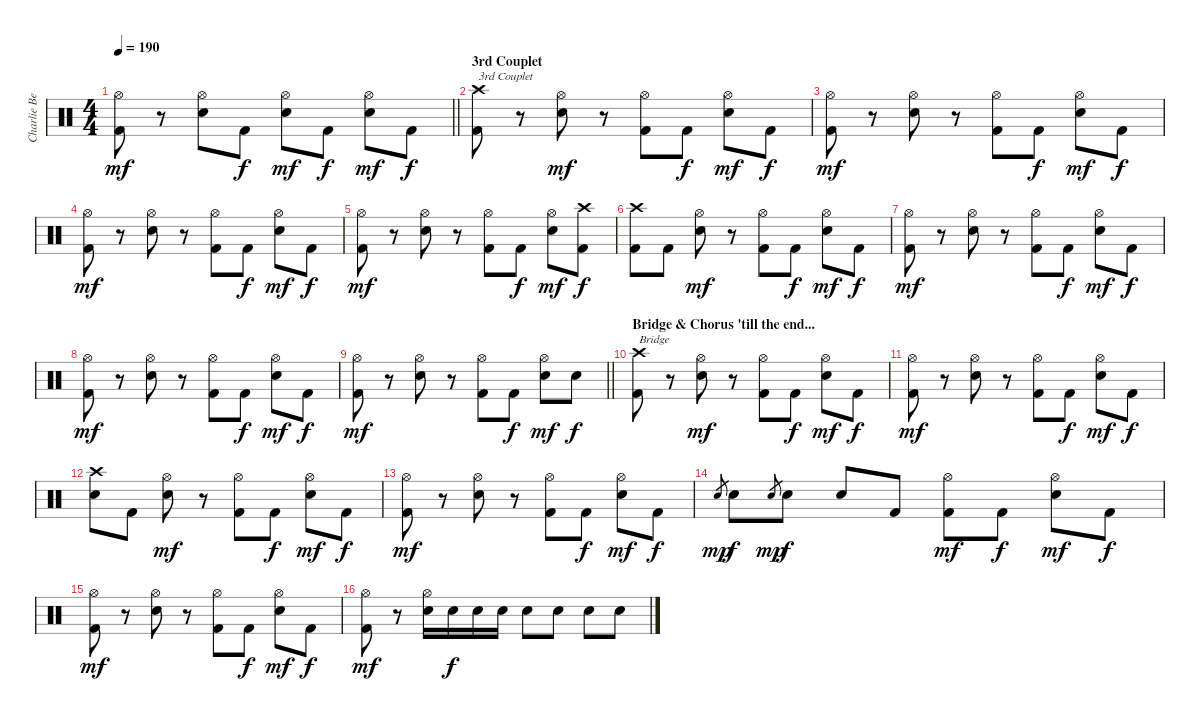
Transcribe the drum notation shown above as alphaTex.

\track ("Charlie Benante" "Charlie Be") {instrument percussion}
\staff {score}
\articulation defaults
\ts (4 4)
\tempo 190
\clef neutral
\barLineRight lightlight
\ks c
("Hi-Hat (open)" "Kick (hit) 2").8{dy mf} r.8 ("Hi-Hat (open)" "Electric Snare (hit)").8 "Kick (hit) 2".8{dy f} ("Hi-Hat (open)" "Electric Snare (hit)").8{dy mf} "Kick (hit) 2".8{dy f} ("Hi-Hat (open)" "Electric Snare (hit)").8{dy mf} "Kick (hit) 2".8{dy f} |
\section ("" "3rd Couplet")
("Crash high (hit)" "Kick (hit) 2").8{txt "3rd Couplet"} r.8 ("Hi-Hat (open)" "Electric Snare (hit)").8{dy mf} r.8 ("Hi-Hat (open)" "Kick (hit) 2").8 "Kick (hit) 2".8{dy f} ("Hi-Hat (open)" "Electric Snare (hit)").8{dy mf} "Kick (hit) 2".8{dy f} |
("Hi-Hat (open)" "Kick (hit) 2").8{dy mf} r.8 ("Hi-Hat (open)" "Electric Snare (hit)").8 r.8 ("Hi-Hat (open)" "Kick (hit) 2").8 "Kick (hit) 2".8{dy f} ("Hi-Hat (open)" "Electric Snare (hit)").8{dy mf} "Kick (hit) 2".8{dy f} |
("Hi-Hat (open)" "Kick (hit) 2").8{dy mf} r.8 ("Hi-Hat (open)" "Electric Snare (hit)").8 r.8 ("Hi-Hat (open)" "Kick (hit) 2").8 "Kick (hit) 2".8{dy f} ("Hi-Hat (open)" "Electric Snare (hit)").8{dy mf} "Kick (hit) 2".8{dy f} |
("Hi-Hat (open)" "Kick (hit) 2").8{dy mf} r.8 ("Hi-Hat (open)" "Electric Snare (hit)").8 r.8 ("Hi-Hat (open)" "Kick (hit) 2").8 "Kick (hit) 2".8{dy f} ("Hi-Hat (open)" "Electric Snare (hit)").8{dy mf} ("Crash high (hit)" "Kick (hit) 2").8{dy f} |
("Crash high (hit)" "Kick (hit) 2").8 "Kick (hit) 2".8 ("Hi-Hat (open)" "Electric Snare (hit)").8{dy mf} r.8 ("Hi-Hat (open)" "Kick (hit) 2").8 "Kick (hit) 2".8{dy f} ("Hi-Hat (open)" "Electric Snare (hit)").8{dy mf} "Kick (hit) 2".8{dy f} |
("Hi-Hat (open)" "Kick (hit) 2").8{dy mf} r.8 ("Hi-Hat (open)" "Electric Snare (hit)").8 r.8 ("Hi-Hat (open)" "Kick (hit) 2").8 "Kick (hit) 2".8{dy f} ("Hi-Hat (open)" "Electric Snare (hit)").8{dy mf} "Kick (hit) 2".8{dy f} |
("Hi-Hat (open)" "Kick (hit) 2").8{dy mf} r.8 ("Hi-Hat (open)" "Electric Snare (hit)").8 r.8 ("Hi-Hat (open)" "Kick (hit) 2").8 "Kick (hit) 2".8{dy f} ("Hi-Hat (open)" "Electric Snare (hit)").8{dy mf} "Kick (hit) 2".8{dy f} |
\barLineRight lightlight
("Hi-Hat (open)" "Kick (hit) 2").8{dy mf} r.8 ("Hi-Hat (open)" "Electric Snare (hit)").8 r.8 ("Hi-Hat (open)" "Kick (hit) 2").8 "Kick (hit) 2".8{dy f} ("Hi-Hat (open)" "Electric Snare (hit)").8{dy mf} "Snare (hit) 2".8{dy f} |
\section ("" "Bridge & Chorus 'till the end...")
("Crash high (hit)" "Kick (hit) 2").8{txt "Bridge"} r.8 ("Hi-Hat (open)" "Electric Snare (hit)").8{dy mf} r.8 ("Hi-Hat (open)" "Kick (hit) 2").8 "Kick (hit) 2".8{dy f} ("Hi-Hat (open)" "Electric Snare (hit)").8{dy mf} "Kick (hit) 2".8{dy f} |
("Hi-Hat (open)" "Kick (hit) 2").8{dy mf} r.8 ("Hi-Hat (open)" "Electric Snare (hit)").8 r.8 ("Hi-Hat (open)" "Kick (hit) 2").8 "Kick (hit) 2".8{dy f} ("Hi-Hat (open)" "Electric Snare (hit)").8{dy mf} "Kick (hit) 2".8{dy f} |
("Crash high (hit)" "Electric Snare (hit)").8 "Kick (hit) 2".8 ("Hi-Hat (open)" "Electric Snare (hit)").8{dy mf} r.8 ("Hi-Hat (open)" "Kick (hit) 2").8 "Kick (hit) 2".8{dy f} ("Hi-Hat (open)" "Electric Snare (hit)").8{dy mf} "Kick (hit) 2".8{dy f} |
("Hi-Hat (open)" "Kick (hit) 2").8{dy mf} r.8 ("Hi-Hat (open)" "Electric Snare (hit)").8 r.8 ("Hi-Hat (open)" "Kick (hit) 2").8 "Kick (hit) 2".8{dy f} ("Hi-Hat (open)" "Electric Snare (hit)").8{dy mf} "Kick (hit) 2".8{dy f} |
"Snare (hit) 2".8{gr dy mp} "Electric Snare (hit)".8{dy f} "Snare (hit) 2".8{gr dy mp} "Electric Snare (hit)".8{dy f} "Electric Snare (hit)".8 "Kick (hit) 2".8 ("Hi-Hat (open)" "Kick (hit) 2").8{dy mf} "Kick (hit) 2".8{dy f} ("Hi-Hat (open)" "Electric Snare (hit)").8{dy mf} "Kick (hit) 2".8{dy f} |
("Hi-Hat (open)" "Kick (hit) 2").8{dy mf} r.8 ("Hi-Hat (open)" "Electric Snare (hit)").8 r.8 ("Hi-Hat (open)" "Kick (hit) 2").8 "Kick (hit) 2".8{dy f} ("Hi-Hat (open)" "Electric Snare (hit)").8{dy mf} "Kick (hit) 2".8{dy f} |
("Hi-Hat (open)" "Kick (hit) 2").8{dy mf} r.8 ("Hi-Hat (open)" "Electric Snare (hit)").16 "Electric Snare (hit)".16{dy f} "Electric Snare (hit)".16 "Electric Snare (hit)".16 "Electric Snare (hit)".8 "Electric Snare (hit)".8 "Electric Snare (hit)".8 "Electric Snare (hit)".8
